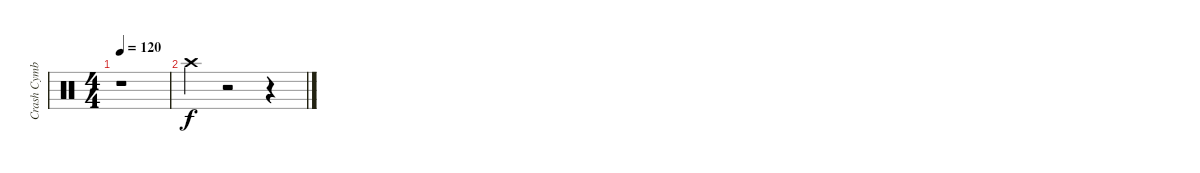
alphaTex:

\track ("Crash Cymbal" "Crash Cymb") {instrument percussion}
\staff {score}
\articulation defaults
\ts (4 4)
\tempo 120
\clef neutral
\ks c
r.1{dy f} |
"Crash high (hit)".4 r.2 r.4
